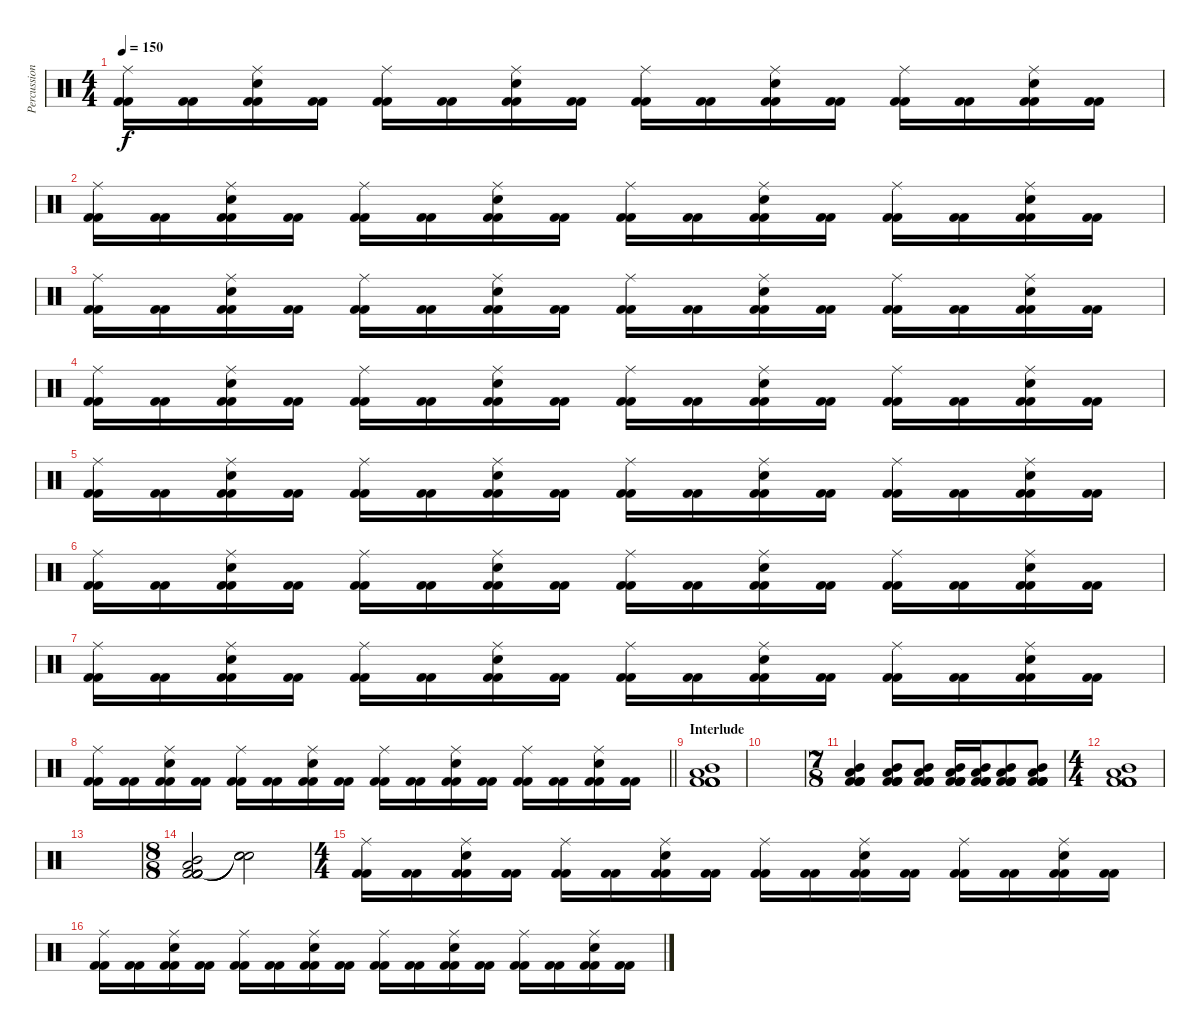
\track ("Percussion" "Percussion") {instrument percussion}
\staff {score}
\articulation defaults
\ts (4 4)
\tempo 150
\clef neutral
\ks c
("Kick (hit) 2" "Kick (hit) 2" "Ride (middle)").16{dy f} ("Kick (hit) 2" "Kick (hit) 2").16 ("Kick (hit) 2" "Kick (hit) 2" "Electric Snare (hit)" "Ride (middle)").16 ("Kick (hit) 2" "Kick (hit) 2").16 ("Kick (hit) 2" "Kick (hit) 2" "Ride (middle)").16 ("Kick (hit) 2" "Kick (hit) 2").16 ("Kick (hit) 2" "Kick (hit) 2" "Electric Snare (hit)" "Ride (middle)").16 ("Kick (hit) 2" "Kick (hit) 2").16 ("Kick (hit) 2" "Kick (hit) 2" "Ride (middle)").16 ("Kick (hit) 2" "Kick (hit) 2").16 ("Kick (hit) 2" "Kick (hit) 2" "Electric Snare (hit)" "Ride (middle)").16 ("Kick (hit) 2" "Kick (hit) 2").16 ("Kick (hit) 2" "Kick (hit) 2" "Ride (middle)").16 ("Kick (hit) 2" "Kick (hit) 2").16 ("Kick (hit) 2" "Kick (hit) 2" "Electric Snare (hit)" "Ride (middle)").16 ("Kick (hit) 2" "Kick (hit) 2").16 |
("Kick (hit) 2" "Kick (hit) 2" "Ride (middle)").16 ("Kick (hit) 2" "Kick (hit) 2").16 ("Kick (hit) 2" "Kick (hit) 2" "Electric Snare (hit)" "Ride (middle)").16 ("Kick (hit) 2" "Kick (hit) 2").16 ("Kick (hit) 2" "Kick (hit) 2" "Ride (middle)").16 ("Kick (hit) 2" "Kick (hit) 2").16 ("Kick (hit) 2" "Kick (hit) 2" "Electric Snare (hit)" "Ride (middle)").16 ("Kick (hit) 2" "Kick (hit) 2").16 ("Kick (hit) 2" "Kick (hit) 2" "Ride (middle)").16 ("Kick (hit) 2" "Kick (hit) 2").16 ("Kick (hit) 2" "Kick (hit) 2" "Electric Snare (hit)" "Ride (middle)").16 ("Kick (hit) 2" "Kick (hit) 2").16 ("Kick (hit) 2" "Kick (hit) 2" "Ride (middle)").16 ("Kick (hit) 2" "Kick (hit) 2").16 ("Kick (hit) 2" "Kick (hit) 2" "Electric Snare (hit)" "Ride (middle)").16 ("Kick (hit) 2" "Kick (hit) 2").16 |
("Kick (hit) 2" "Kick (hit) 2" "Ride (middle)").16 ("Kick (hit) 2" "Kick (hit) 2").16 ("Kick (hit) 2" "Kick (hit) 2" "Electric Snare (hit)" "Ride (middle)").16 ("Kick (hit) 2" "Kick (hit) 2").16 ("Kick (hit) 2" "Kick (hit) 2" "Ride (middle)").16 ("Kick (hit) 2" "Kick (hit) 2").16 ("Kick (hit) 2" "Kick (hit) 2" "Electric Snare (hit)" "Ride (middle)").16 ("Kick (hit) 2" "Kick (hit) 2").16 ("Kick (hit) 2" "Kick (hit) 2" "Ride (middle)").16 ("Kick (hit) 2" "Kick (hit) 2").16 ("Kick (hit) 2" "Kick (hit) 2" "Electric Snare (hit)" "Ride (middle)").16 ("Kick (hit) 2" "Kick (hit) 2").16 ("Kick (hit) 2" "Kick (hit) 2" "Ride (middle)").16 ("Kick (hit) 2" "Kick (hit) 2").16 ("Kick (hit) 2" "Kick (hit) 2" "Electric Snare (hit)" "Ride (middle)").16 ("Kick (hit) 2" "Kick (hit) 2").16 |
("Kick (hit) 2" "Kick (hit) 2" "Ride (middle)").16 ("Kick (hit) 2" "Kick (hit) 2").16 ("Kick (hit) 2" "Kick (hit) 2" "Electric Snare (hit)" "Ride (middle)").16 ("Kick (hit) 2" "Kick (hit) 2").16 ("Kick (hit) 2" "Kick (hit) 2" "Ride (middle)").16 ("Kick (hit) 2" "Kick (hit) 2").16 ("Kick (hit) 2" "Kick (hit) 2" "Electric Snare (hit)" "Ride (middle)").16 ("Kick (hit) 2" "Kick (hit) 2").16 ("Kick (hit) 2" "Kick (hit) 2" "Ride (middle)").16 ("Kick (hit) 2" "Kick (hit) 2").16 ("Kick (hit) 2" "Kick (hit) 2" "Electric Snare (hit)" "Ride (middle)").16 ("Kick (hit) 2" "Kick (hit) 2").16 ("Kick (hit) 2" "Kick (hit) 2" "Ride (middle)").16 ("Kick (hit) 2" "Kick (hit) 2").16 ("Kick (hit) 2" "Kick (hit) 2" "Electric Snare (hit)" "Ride (middle)").16 ("Kick (hit) 2" "Kick (hit) 2").16 |
("Kick (hit) 2" "Kick (hit) 2" "Ride (middle)").16 ("Kick (hit) 2" "Kick (hit) 2").16 ("Kick (hit) 2" "Kick (hit) 2" "Electric Snare (hit)" "Ride (middle)").16 ("Kick (hit) 2" "Kick (hit) 2").16 ("Kick (hit) 2" "Kick (hit) 2" "Ride (middle)").16 ("Kick (hit) 2" "Kick (hit) 2").16 ("Kick (hit) 2" "Kick (hit) 2" "Electric Snare (hit)" "Ride (middle)").16 ("Kick (hit) 2" "Kick (hit) 2").16 ("Kick (hit) 2" "Kick (hit) 2" "Ride (middle)").16 ("Kick (hit) 2" "Kick (hit) 2").16 ("Kick (hit) 2" "Kick (hit) 2" "Electric Snare (hit)" "Ride (middle)").16 ("Kick (hit) 2" "Kick (hit) 2").16 ("Kick (hit) 2" "Kick (hit) 2" "Ride (middle)").16 ("Kick (hit) 2" "Kick (hit) 2").16 ("Kick (hit) 2" "Kick (hit) 2" "Electric Snare (hit)" "Ride (middle)").16 ("Kick (hit) 2" "Kick (hit) 2").16 |
("Kick (hit) 2" "Kick (hit) 2" "Ride (middle)").16 ("Kick (hit) 2" "Kick (hit) 2").16 ("Kick (hit) 2" "Kick (hit) 2" "Electric Snare (hit)" "Ride (middle)").16 ("Kick (hit) 2" "Kick (hit) 2").16 ("Kick (hit) 2" "Kick (hit) 2" "Ride (middle)").16 ("Kick (hit) 2" "Kick (hit) 2").16 ("Kick (hit) 2" "Kick (hit) 2" "Electric Snare (hit)" "Ride (middle)").16 ("Kick (hit) 2" "Kick (hit) 2").16 ("Kick (hit) 2" "Kick (hit) 2" "Ride (middle)").16 ("Kick (hit) 2" "Kick (hit) 2").16 ("Kick (hit) 2" "Kick (hit) 2" "Electric Snare (hit)" "Ride (middle)").16 ("Kick (hit) 2" "Kick (hit) 2").16 ("Kick (hit) 2" "Kick (hit) 2" "Ride (middle)").16 ("Kick (hit) 2" "Kick (hit) 2").16 ("Kick (hit) 2" "Kick (hit) 2" "Electric Snare (hit)" "Ride (middle)").16 ("Kick (hit) 2" "Kick (hit) 2").16 |
("Kick (hit) 2" "Kick (hit) 2" "Ride (middle)").16 ("Kick (hit) 2" "Kick (hit) 2").16 ("Kick (hit) 2" "Kick (hit) 2" "Electric Snare (hit)" "Ride (middle)").16 ("Kick (hit) 2" "Kick (hit) 2").16 ("Kick (hit) 2" "Kick (hit) 2" "Ride (middle)").16 ("Kick (hit) 2" "Kick (hit) 2").16 ("Kick (hit) 2" "Kick (hit) 2" "Electric Snare (hit)" "Ride (middle)").16 ("Kick (hit) 2" "Kick (hit) 2").16 ("Kick (hit) 2" "Kick (hit) 2" "Ride (middle)").16 ("Kick (hit) 2" "Kick (hit) 2").16 ("Kick (hit) 2" "Kick (hit) 2" "Electric Snare (hit)" "Ride (middle)").16 ("Kick (hit) 2" "Kick (hit) 2").16 ("Kick (hit) 2" "Kick (hit) 2" "Ride (middle)").16 ("Kick (hit) 2" "Kick (hit) 2").16 ("Kick (hit) 2" "Kick (hit) 2" "Electric Snare (hit)" "Ride (middle)").16 ("Kick (hit) 2" "Kick (hit) 2").16 |
\barLineRight lightlight
("Kick (hit) 2" "Kick (hit) 2" "Ride (middle)").16 ("Kick (hit) 2" "Kick (hit) 2").16 ("Kick (hit) 2" "Kick (hit) 2" "Electric Snare (hit)" "Ride (middle)").16 ("Kick (hit) 2" "Kick (hit) 2").16 ("Kick (hit) 2" "Kick (hit) 2" "Ride (middle)").16 ("Kick (hit) 2" "Kick (hit) 2").16 ("Kick (hit) 2" "Kick (hit) 2" "Electric Snare (hit)" "Ride (middle)").16 ("Kick (hit) 2" "Kick (hit) 2").16 ("Kick (hit) 2" "Kick (hit) 2" "Ride (middle)").16 ("Kick (hit) 2" "Kick (hit) 2").16 ("Kick (hit) 2" "Kick (hit) 2" "Electric Snare (hit)" "Ride (middle)").16 ("Kick (hit) 2" "Kick (hit) 2").16 ("Kick (hit) 2" "Kick (hit) 2" "Ride (middle)").16 ("Kick (hit) 2" "Kick (hit) 2").16 ("Kick (hit) 2" "Kick (hit) 2" "Electric Snare (hit)" "Ride (middle)").16 ("Kick (hit) 2" "Kick (hit) 2").16 |
\section ("" "Interlude")
("Kick (hit) 2" "Kick (hit) 2" "Kick (hit) 2" "Low Tom (hit)" "Mid Tom (hit)" "Kick (hit) 2").1 |
|
\ts (7 8)
("Kick (hit) 2" "Kick (hit) 2" "Kick (hit) 2" "Low Tom (hit)" "Mid Tom (hit)" "Kick (hit) 2").4 ("Kick (hit) 2" "Kick (hit) 2" "Kick (hit) 2" "Low Tom (hit)" "Mid Tom (hit)" "Kick (hit) 2").8 ("Kick (hit) 2" "Kick (hit) 2" "Kick (hit) 2" "Low Tom (hit)" "Mid Tom (hit)" "Kick (hit) 2").8 ("Kick (hit) 2" "Kick (hit) 2" "Kick (hit) 2" "Low Tom (hit)" "Mid Tom (hit)" "Kick (hit) 2").16 ("Kick (hit) 2" "Kick (hit) 2" "Kick (hit) 2" "Low Tom (hit)" "Mid Tom (hit)" "Kick (hit) 2").16 ("Kick (hit) 2" "Kick (hit) 2" "Kick (hit) 2" "Low Tom (hit)" "Mid Tom (hit)" "Kick (hit) 2").8 ("Kick (hit) 2" "Kick (hit) 2" "Kick (hit) 2" "Low Tom (hit)" "Mid Tom (hit)" "Kick (hit) 2").8 |
\ts (4 4)
("Kick (hit) 2" "Kick (hit) 2" "Kick (hit) 2" "Low Tom (hit)" "Mid Tom (hit)" "Kick (hit) 2").1 |
|
\ts (8 8)
("Kick (hit) 2" "Kick (hit) 2" "Kick (hit) 2" "Low Tom (hit)" "Mid Tom (hit)" "Kick (hit) 2").2 ("Snare (hit)"{t} "Snare (hit)"{t} "Snare (hit)"{t}).2 |
\ts (4 4)
("Kick (hit) 2" "Kick (hit) 2" "Ride (middle)").16 ("Kick (hit) 2" "Kick (hit) 2").16 ("Kick (hit) 2" "Kick (hit) 2" "Electric Snare (hit)" "Ride (middle)").16 ("Kick (hit) 2" "Kick (hit) 2").16 ("Kick (hit) 2" "Kick (hit) 2" "Ride (middle)").16 ("Kick (hit) 2" "Kick (hit) 2").16 ("Kick (hit) 2" "Kick (hit) 2" "Electric Snare (hit)" "Ride (middle)").16 ("Kick (hit) 2" "Kick (hit) 2").16 ("Kick (hit) 2" "Kick (hit) 2" "Ride (middle)").16 ("Kick (hit) 2" "Kick (hit) 2").16 ("Kick (hit) 2" "Kick (hit) 2" "Electric Snare (hit)" "Ride (middle)").16 ("Kick (hit) 2" "Kick (hit) 2").16 ("Kick (hit) 2" "Kick (hit) 2" "Ride (middle)").16 ("Kick (hit) 2" "Kick (hit) 2").16 ("Kick (hit) 2" "Kick (hit) 2" "Electric Snare (hit)" "Ride (middle)").16 ("Kick (hit) 2" "Kick (hit) 2").16 |
("Kick (hit) 2" "Kick (hit) 2" "Ride (middle)").16 ("Kick (hit) 2" "Kick (hit) 2").16 ("Kick (hit) 2" "Kick (hit) 2" "Electric Snare (hit)" "Ride (middle)").16 ("Kick (hit) 2" "Kick (hit) 2").16 ("Kick (hit) 2" "Kick (hit) 2" "Ride (middle)").16 ("Kick (hit) 2" "Kick (hit) 2").16 ("Kick (hit) 2" "Kick (hit) 2" "Electric Snare (hit)" "Ride (middle)").16 ("Kick (hit) 2" "Kick (hit) 2").16 ("Kick (hit) 2" "Kick (hit) 2" "Ride (middle)").16 ("Kick (hit) 2" "Kick (hit) 2").16 ("Kick (hit) 2" "Kick (hit) 2" "Electric Snare (hit)" "Ride (middle)").16 ("Kick (hit) 2" "Kick (hit) 2").16 ("Kick (hit) 2" "Kick (hit) 2" "Ride (middle)").16 ("Kick (hit) 2" "Kick (hit) 2").16 ("Kick (hit) 2" "Kick (hit) 2" "Electric Snare (hit)" "Ride (middle)").16 ("Kick (hit) 2" "Kick (hit) 2").16
